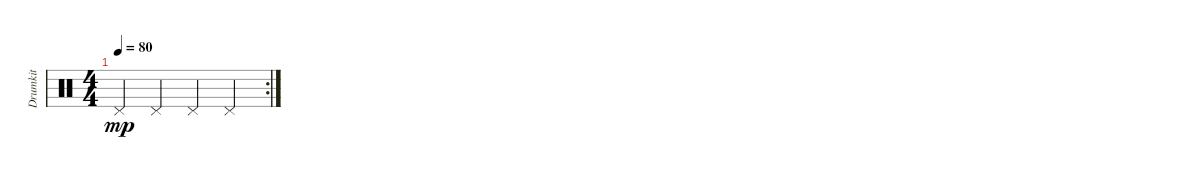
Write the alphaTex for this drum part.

\track ("Drumkit" "Drumkit") {instrument percussion}
\staff {score}
\articulation defaults
\rc 2
\ts (4 4)
\tempo 80
\clef neutral
\ks c "Pedal Hi-Hat (hit)".4{dy mp} "Pedal Hi-Hat (hit)".4 "Pedal Hi-Hat (hit)".4 "Pedal Hi-Hat (hit)".4
